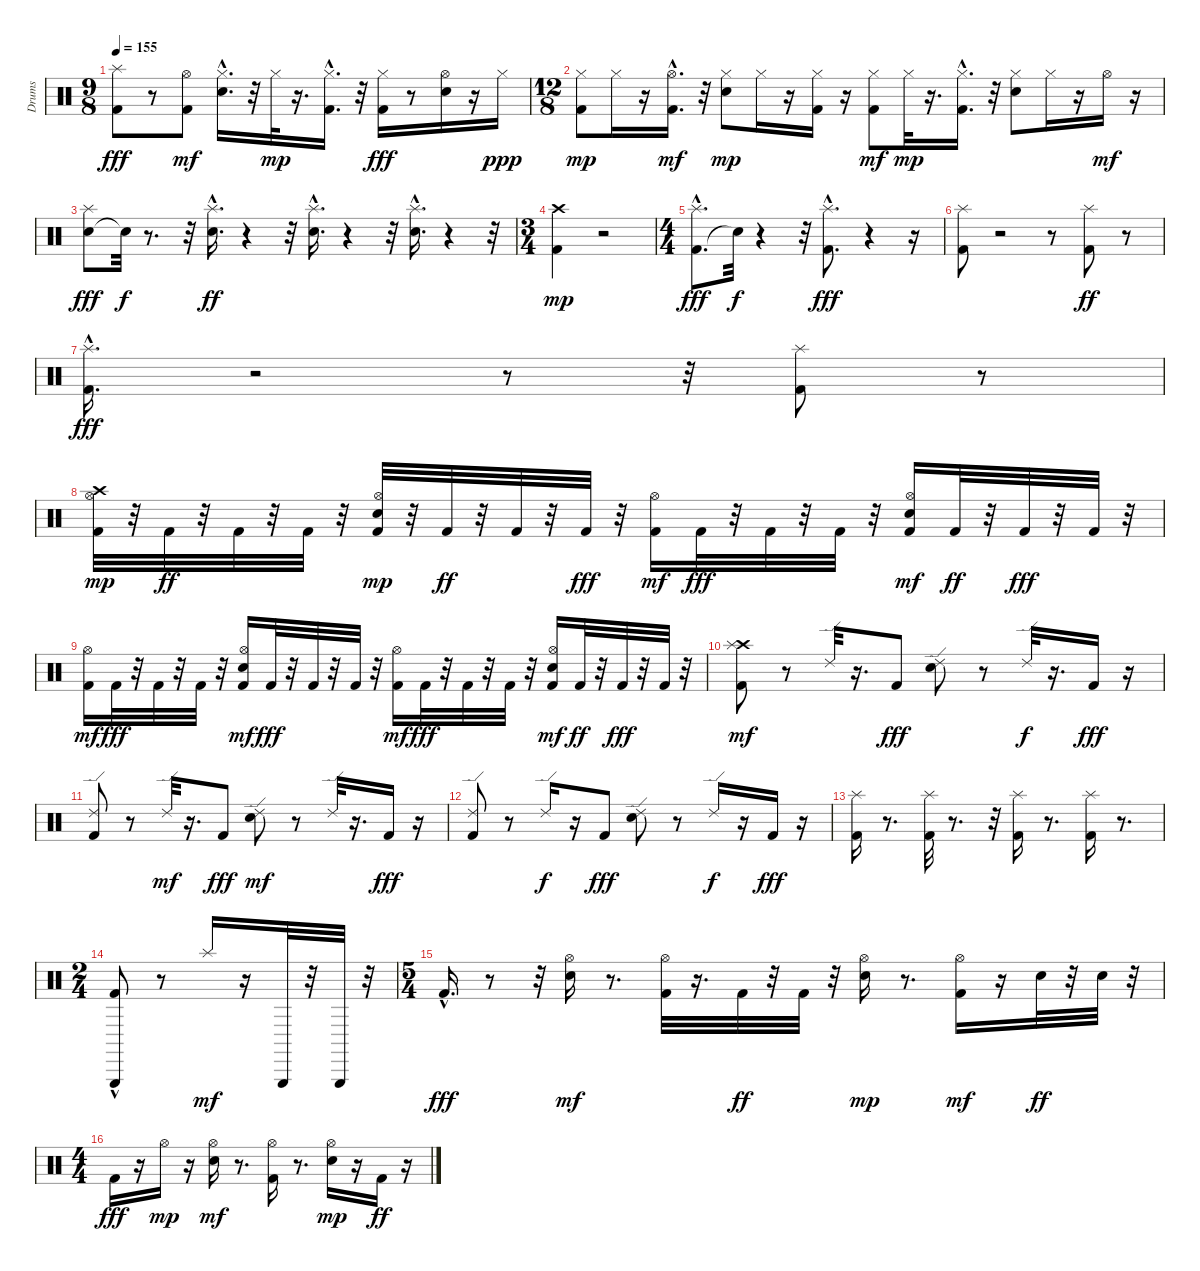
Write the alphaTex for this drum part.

\track ("Drums" "Drums") {instrument percussion}
\staff {score}
\articulation defaults
\ts (9 8)
\tempo 155
\clef neutral
\ks c
("Kick (hit) 2" "Splash (hit)").8{dy fff} r.8 ("Kick (hit) 2" "Hi-Hat (open)").8{dy mf} ("Electric Snare (hit)"{hac} "Hi-Hat (closed)").16{d} r.32 "Hi-Hat (closed)".32{dy mp} r.16{d} ("Kick (hit) 2"{hac} "Hi-Hat (closed)").16{d} r.32 ("Kick (hit) 2" "Hi-Hat (closed)").16{dy fff} r.8 ("Electric Snare (hit)" "Hi-Hat (open)").16 r.16 "Hi-Hat (closed)".16{dy ppp} |
\ts (12 8)
("Kick (hit) 2" "Hi-Hat (closed)").8{dy mp} "Hi-Hat (closed)".16 r.16 ("Kick (hit) 2"{hac} "Hi-Hat (open)"{hac}).16{d dy mf} r.32 ("Electric Snare (hit)" "Hi-Hat (closed)").8{dy mp} "Hi-Hat (closed)".16 r.16 ("Kick (hit) 2" "Hi-Hat (closed)").16 r.16 ("Kick (hit) 2" "Hi-Hat (closed)").8{dy mf} "Hi-Hat (closed)".32{dy mp} r.16{d} ("Kick (hit) 2"{hac} "Hi-Hat (closed)").16{d} r.32 ("Electric Snare (hit)" "Hi-Hat (closed)").8 "Hi-Hat (closed)".16 r.16 "Hi-Hat (open)".16{dy mf} r.16 |
("Electric Snare (hit)" "Splash (hit)").8{dy fff} "Snare (hit)"{t}.32{dy f} r.8{d} r.32 ("Electric Snare (hit)"{hac} "Splash (hit)").16{d dy ff} r.4 r.32 ("Electric Snare (hit)"{hac} "Splash (hit)").16{d} r.4 r.32 ("Electric Snare (hit)"{hac} "Splash (hit)").16{d} r.4 r.32 |
\ts (3 4)
("Kick (hit) 2" "Crash high (hit)").4{dy mp} r.2 |
\ts (4 4)
("Kick (hit) 2"{hac} "Splash (hit)").8{d dy fff} "Snare (hit)"{t}.32{dy f} r.4 r.32 ("Kick (hit) 2"{hac} "Splash (hit)").8{d dy fff} r.4 r.16 |
("Kick (hit) 2" "Splash (hit)").8 r.2 r.8 ("Kick (hit) 2" "Splash (hit)").8{dy ff volume 15} r.8 |
("Kick (hit) 2"{hac} "Splash (hit)").16{d dy fff volume 15} r.2 r.8 r.32 ("Kick (hit) 2" "Splash (hit)").8{volume 15} r.8 |
("Kick (hit) 2" "Crash high (hit)" "Hi-Hat (open)").32{dy mp volume 12} r.32 "Kick (hit) 2".32{dy ff} r.32 "Kick (hit) 2".32 r.32 "Kick (hit) 2".32 r.32 ("Electric Snare (hit)" "Kick (hit) 2" "Hi-Hat (open)").32{dy mp} r.32 "Kick (hit) 2".32{dy ff} r.32 "Kick (hit) 2".32 r.32 "Kick (hit) 2".32{dy fff} r.32 ("Kick (hit) 2" "Hi-Hat (open)").16{dy mf} "Kick (hit) 2".32{dy fff} r.32 "Kick (hit) 2".32 r.32 "Kick (hit) 2".32 r.32 ("Electric Snare (hit)" "Kick (hit) 2" "Hi-Hat (open)").16{dy mf} "Kick (hit) 2".32{dy ff} r.32 "Kick (hit) 2".32{dy fff} r.32 "Kick (hit) 2".32 r.32 |
("Kick (hit) 2" "Hi-Hat (open)").16{dy mf} "Kick (hit) 2".32{dy fff} r.32 "Kick (hit) 2".32 r.32 "Kick (hit) 2".32 r.32 ("Electric Snare (hit)" "Kick (hit) 2" "Hi-Hat (open)").16{dy mf} "Kick (hit) 2".32{dy fff} r.32 "Kick (hit) 2".32 r.32 "Kick (hit) 2".32 r.32 ("Kick (hit) 2" "Hi-Hat (open)").16{dy mf} "Kick (hit) 2".32{dy fff} r.32 "Kick (hit) 2".32 r.32 "Kick (hit) 2".32 r.32 ("Kick (hit) 2" "Electric Snare (hit)" "Hi-Hat (open)").16{dy mf} "Kick (hit) 2".32{dy ff} r.32 "Kick (hit) 2".32{dy fff} r.32 "Kick (hit) 2".32 r.32 |
("Kick (hit) 2" "Crash high (hit)" "Splash (hit)").8{dy mf} r.8 "Ride (edge) 2".32 r.16{d} "Kick (hit) 2".8{dy fff} ("Electric Snare (hit)" "Ride (edge) 2").8 r.8 "Ride (edge) 2".32{dy f} r.16{d} "Kick (hit) 2".16{dy fff} r.16 |
("Kick (hit) 2" "Ride (edge) 2").8 r.8 "Ride (edge) 2".32{dy mf} r.16{d} "Kick (hit) 2".8{dy fff} ("Electric Snare (hit)" "Ride (edge) 2").8{dy mf} r.8 "Ride (edge) 2".32 r.16{d} "Kick (hit) 2".16{dy fff} r.16 |
("Kick (hit) 2" "Ride (edge) 2").8 r.8 "Ride (edge) 2".16{dy f} r.16 "Kick (hit) 2".8{dy fff} ("Electric Snare (hit)" "Ride (edge) 2").8 r.8 "Ride (edge) 2".16{dy f} r.16 "Kick (hit) 2".16{dy fff} r.16 |
("Kick (hit) 2" "Splash (hit)").16{volume 15} r.8{d} ("Kick (hit) 2" "Splash (hit)").32{volume 15} r.8{d} r.32 ("Kick (hit) 2" "Splash (hit)").16{volume 15} r.8{d} ("Kick (hit) 2" "Splash (hit)").16{volume 15} r.8{d} |
\ts (2 4)
("Kick (hit) 2" "Triangle (hit)"{hac}).8{volume 12} r.8 "Splash (hit)".16{dy mf} r.16 "Triangle (hit)".32 r.32 "Triangle (hit)".32 r.32 |
\ts (5 4)
"Kick (hit) 2"{hac}.16{d dy fff} r.8 r.32 ("Electric Snare (hit)" "Hi-Hat (open)").16{dy mf} r.8{d} ("Kick (hit) 2" "Hi-Hat (open)").32 r.16{d} "Kick (hit) 2".32{dy ff} r.32 "Kick (hit) 2".32 r.32 ("Electric Snare (hit)" "Hi-Hat (open)").16{dy mp} r.8{d} ("Kick (hit) 2" "Hi-Hat (open)").16{dy mf} r.16 "Electric Snare (hit)".32{dy ff} r.32 "Electric Snare (hit)".32 r.32 |
\ts (4 4)
"Kick (hit) 2".16{dy fff} r.16 "Hi-Hat (open)".16{dy mp} r.16 ("Electric Snare (hit)" "Hi-Hat (open)").16{dy mf} r.8{d} ("Kick (hit) 2" "Hi-Hat (open)").16 r.8{d} ("Electric Snare (hit)" "Hi-Hat (open)").16{dy mp} r.16 "Kick (hit) 2".16{dy ff} r.16
